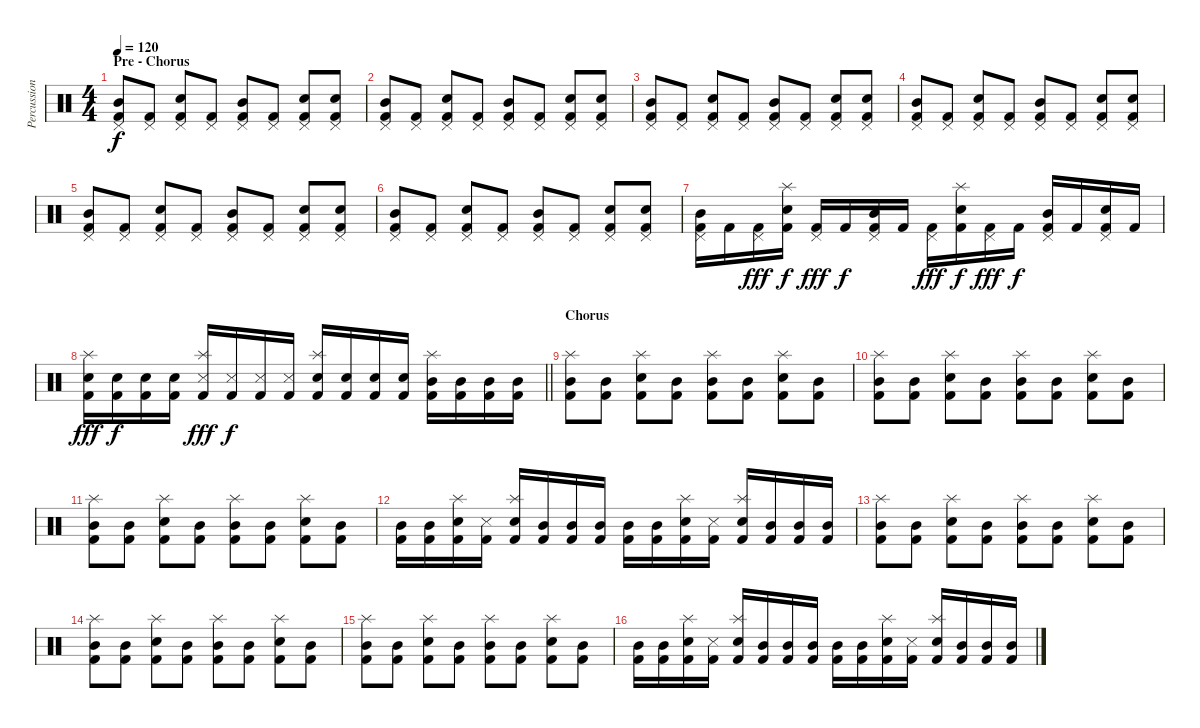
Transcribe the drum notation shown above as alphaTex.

\track ("Percussion" "Percussion") {instrument percussion}
\staff {score}
\articulation defaults
\ts (4 4)
\section ("" "Pre - Chorus")
\tempo 120
\clef neutral
\ks c
("Pedal Hi-Hat (hit)" "Mid Tom (hit)" "Kick (hit) 2").8{dy f} ("Pedal Hi-Hat (hit)" "Kick (hit) 2").8 ("Pedal Hi-Hat (hit)" "Electric Snare (hit)" "Kick (hit) 2").8 ("Pedal Hi-Hat (hit)" "Kick (hit) 2").8 ("Pedal Hi-Hat (hit)" "Mid Tom (hit)" "Kick (hit) 2").8 ("Pedal Hi-Hat (hit)" "Kick (hit) 2").8 ("Pedal Hi-Hat (hit)" "Electric Snare (hit)" "Kick (hit) 2").8 ("Pedal Hi-Hat (hit)" "Electric Snare (hit)" "Kick (hit) 2").8 |
("Pedal Hi-Hat (hit)" "Mid Tom (hit)" "Kick (hit) 2").8 ("Pedal Hi-Hat (hit)" "Kick (hit) 2").8 ("Pedal Hi-Hat (hit)" "Electric Snare (hit)" "Kick (hit) 2").8 ("Pedal Hi-Hat (hit)" "Kick (hit) 2").8 ("Pedal Hi-Hat (hit)" "Mid Tom (hit)" "Kick (hit) 2").8 ("Pedal Hi-Hat (hit)" "Kick (hit) 2").8 ("Pedal Hi-Hat (hit)" "Electric Snare (hit)" "Kick (hit) 2").8 ("Pedal Hi-Hat (hit)" "Electric Snare (hit)" "Kick (hit) 2").8 |
("Pedal Hi-Hat (hit)" "Mid Tom (hit)" "Kick (hit) 2").8 ("Pedal Hi-Hat (hit)" "Kick (hit) 2").8 ("Pedal Hi-Hat (hit)" "Electric Snare (hit)" "Kick (hit) 2").8 ("Pedal Hi-Hat (hit)" "Kick (hit) 2").8 ("Pedal Hi-Hat (hit)" "Mid Tom (hit)" "Kick (hit) 2").8 ("Pedal Hi-Hat (hit)" "Kick (hit) 2").8 ("Pedal Hi-Hat (hit)" "Electric Snare (hit)" "Kick (hit) 2").8 ("Pedal Hi-Hat (hit)" "Electric Snare (hit)" "Kick (hit) 2").8 |
("Pedal Hi-Hat (hit)" "Mid Tom (hit)" "Kick (hit) 2").8 ("Pedal Hi-Hat (hit)" "Kick (hit) 2").8 ("Pedal Hi-Hat (hit)" "Electric Snare (hit)" "Kick (hit) 2").8 ("Pedal Hi-Hat (hit)" "Kick (hit) 2").8 ("Pedal Hi-Hat (hit)" "Mid Tom (hit)" "Kick (hit) 2").8 ("Pedal Hi-Hat (hit)" "Kick (hit) 2").8 ("Pedal Hi-Hat (hit)" "Electric Snare (hit)" "Kick (hit) 2").8 ("Pedal Hi-Hat (hit)" "Electric Snare (hit)" "Kick (hit) 2").8 |
("Pedal Hi-Hat (hit)" "Mid Tom (hit)" "Kick (hit) 2").8 ("Pedal Hi-Hat (hit)" "Kick (hit) 2").8 ("Pedal Hi-Hat (hit)" "Electric Snare (hit)" "Kick (hit) 2").8 ("Pedal Hi-Hat (hit)" "Kick (hit) 2").8 ("Pedal Hi-Hat (hit)" "Mid Tom (hit)" "Kick (hit) 2").8 ("Pedal Hi-Hat (hit)" "Kick (hit) 2").8 ("Pedal Hi-Hat (hit)" "Electric Snare (hit)" "Kick (hit) 2").8 ("Pedal Hi-Hat (hit)" "Electric Snare (hit)" "Kick (hit) 2").8 |
("Pedal Hi-Hat (hit)" "Mid Tom (hit)" "Kick (hit) 2").8 ("Pedal Hi-Hat (hit)" "Kick (hit) 2").8 ("Pedal Hi-Hat (hit)" "Electric Snare (hit)" "Kick (hit) 2").8 ("Pedal Hi-Hat (hit)" "Kick (hit) 2").8 ("Pedal Hi-Hat (hit)" "Mid Tom (hit)" "Kick (hit) 2").8 ("Pedal Hi-Hat (hit)" "Kick (hit) 2").8 ("Pedal Hi-Hat (hit)" "Electric Snare (hit)" "Kick (hit) 2").8 ("Pedal Hi-Hat (hit)" "Electric Snare (hit)" "Kick (hit) 2").8 |
("Pedal Hi-Hat (hit)" "Mid Tom (hit)" "Kick (hit) 2").16 "Kick (hit) 2".16 ("Pedal Hi-Hat (hit)" "Kick (hit) 2").16{dy fff} ("Splash (hit)" "Electric Snare (hit)" "Kick (hit) 2").16{dy f} ("Pedal Hi-Hat (hit)" "Kick (hit) 2").16{dy fff} "Kick (hit) 2".16{dy f} ("Pedal Hi-Hat (hit)" "Mid Tom (hit)" "Kick (hit) 2").16 "Kick (hit) 2".16 ("Pedal Hi-Hat (hit)" "Kick (hit) 2").16{dy fff} ("Splash (hit)" "Electric Snare (hit)" "Kick (hit) 2").16{dy f} ("Pedal Hi-Hat (hit)" "Kick (hit) 2").16{dy fff} "Kick (hit) 2".16{dy f} ("Pedal Hi-Hat (hit)" "Mid Tom (hit)" "Kick (hit) 2").16 "Kick (hit) 2".16 ("Pedal Hi-Hat (hit)" "Electric Snare (hit)" "Kick (hit) 2").16 "Kick (hit) 2".16 |
\barLineRight lightlight
("Splash (hit)" "Electric Snare (hit)" "Kick (hit) 2").16{dy fff} ("Electric Snare (hit)" "Kick (hit) 2").16{dy f} ("Electric Snare (hit)" "Kick (hit) 2").16 ("Electric Snare (hit)" "Kick (hit) 2").16 ("Splash (hit)" "Metronome (hit)" "Kick (hit) 2").16{dy fff} ("Metronome (hit)" "Kick (hit) 2").16{dy f} ("Metronome (hit)" "Kick (hit) 2").16 ("Metronome (hit)" "Kick (hit) 2").16 ("Splash (hit)" "Snare (hit)" "Kick (hit) 2").16 ("Snare (hit)" "Kick (hit) 2").16 ("Snare (hit)" "Kick (hit) 2").16 ("Snare (hit)" "Kick (hit) 2").16 ("Splash (hit)" "Mid Tom (hit)" "Kick (hit) 2").16 ("Mid Tom (hit)" "Kick (hit) 2").16 ("Mid Tom (hit)" "Kick (hit) 2").16 ("Mid Tom (hit)" "Kick (hit) 2").16 |
\section ("" "Chorus")
("Splash (hit)" "Mid Tom (hit)" "Kick (hit) 2").8 ("Mid Tom (hit)" "Kick (hit) 2").8 ("Splash (hit)" "Electric Snare (hit)" "Kick (hit) 2").8 ("Mid Tom (hit)" "Kick (hit) 2").8 ("Splash (hit)" "Mid Tom (hit)" "Kick (hit) 2").8 ("Mid Tom (hit)" "Kick (hit) 2").8 ("Splash (hit)" "Electric Snare (hit)" "Kick (hit) 2").8 ("Mid Tom (hit)" "Kick (hit) 2").8 |
("Splash (hit)" "Mid Tom (hit)" "Kick (hit) 2").8 ("Mid Tom (hit)" "Kick (hit) 2").8 ("Splash (hit)" "Electric Snare (hit)" "Kick (hit) 2").8 ("Mid Tom (hit)" "Kick (hit) 2").8 ("Splash (hit)" "Mid Tom (hit)" "Kick (hit) 2").8 ("Mid Tom (hit)" "Kick (hit) 2").8 ("Splash (hit)" "Electric Snare (hit)" "Kick (hit) 2").8 ("Mid Tom (hit)" "Kick (hit) 2").8 |
("Splash (hit)" "Mid Tom (hit)" "Kick (hit) 2").8 ("Mid Tom (hit)" "Kick (hit) 2").8 ("Splash (hit)" "Electric Snare (hit)" "Kick (hit) 2").8 ("Mid Tom (hit)" "Kick (hit) 2").8 ("Splash (hit)" "Mid Tom (hit)" "Kick (hit) 2").8 ("Mid Tom (hit)" "Kick (hit) 2").8 ("Splash (hit)" "Electric Snare (hit)" "Kick (hit) 2").8 ("Mid Tom (hit)" "Kick (hit) 2").8 |
("Mid Tom (hit)" "Kick (hit) 2").16 ("Mid Tom (hit)" "Kick (hit) 2").16 ("Splash (hit)" "Electric Snare (hit)" "Kick (hit) 2").16 ("Metronome (hit)" "Kick (hit) 2").16 ("Splash (hit)" "Snare (hit)" "Kick (hit) 2").16 ("Mid Tom (hit)" "Kick (hit) 2").16 ("Mid Tom (hit)" "Kick (hit) 2").16 ("Mid Tom (hit)" "Kick (hit) 2").16 ("Mid Tom (hit)" "Kick (hit) 2").16 ("Mid Tom (hit)" "Kick (hit) 2").16 ("Splash (hit)" "Electric Snare (hit)" "Kick (hit) 2").16 ("Metronome (hit)" "Kick (hit) 2").16 ("Splash (hit)" "Snare (hit)" "Kick (hit) 2").16 ("Mid Tom (hit)" "Kick (hit) 2").16 ("Mid Tom (hit)" "Kick (hit) 2").16 ("Mid Tom (hit)" "Kick (hit) 2").16 |
("Splash (hit)" "Mid Tom (hit)" "Kick (hit) 2").8 ("Mid Tom (hit)" "Kick (hit) 2").8 ("Splash (hit)" "Electric Snare (hit)" "Kick (hit) 2").8 ("Mid Tom (hit)" "Kick (hit) 2").8 ("Splash (hit)" "Mid Tom (hit)" "Kick (hit) 2").8 ("Mid Tom (hit)" "Kick (hit) 2").8 ("Splash (hit)" "Electric Snare (hit)" "Kick (hit) 2").8 ("Mid Tom (hit)" "Kick (hit) 2").8 |
("Splash (hit)" "Mid Tom (hit)" "Kick (hit) 2").8 ("Mid Tom (hit)" "Kick (hit) 2").8 ("Splash (hit)" "Electric Snare (hit)" "Kick (hit) 2").8 ("Mid Tom (hit)" "Kick (hit) 2").8 ("Splash (hit)" "Mid Tom (hit)" "Kick (hit) 2").8 ("Mid Tom (hit)" "Kick (hit) 2").8 ("Splash (hit)" "Electric Snare (hit)" "Kick (hit) 2").8 ("Mid Tom (hit)" "Kick (hit) 2").8 |
("Splash (hit)" "Mid Tom (hit)" "Kick (hit) 2").8 ("Mid Tom (hit)" "Kick (hit) 2").8 ("Splash (hit)" "Electric Snare (hit)" "Kick (hit) 2").8 ("Mid Tom (hit)" "Kick (hit) 2").8 ("Splash (hit)" "Mid Tom (hit)" "Kick (hit) 2").8 ("Mid Tom (hit)" "Kick (hit) 2").8 ("Splash (hit)" "Electric Snare (hit)" "Kick (hit) 2").8 ("Mid Tom (hit)" "Kick (hit) 2").8 |
("Mid Tom (hit)" "Kick (hit) 2").16 ("Mid Tom (hit)" "Kick (hit) 2").16 ("Splash (hit)" "Electric Snare (hit)" "Kick (hit) 2").16 ("Metronome (hit)" "Kick (hit) 2").16 ("Splash (hit)" "Snare (hit)" "Kick (hit) 2").16 ("Mid Tom (hit)" "Kick (hit) 2").16 ("Mid Tom (hit)" "Kick (hit) 2").16 ("Mid Tom (hit)" "Kick (hit) 2").16 ("Mid Tom (hit)" "Kick (hit) 2").16 ("Mid Tom (hit)" "Kick (hit) 2").16 ("Splash (hit)" "Electric Snare (hit)" "Kick (hit) 2").16 ("Metronome (hit)" "Kick (hit) 2").16 ("Splash (hit)" "Snare (hit)" "Kick (hit) 2").16 ("Mid Tom (hit)" "Kick (hit) 2").16 ("Mid Tom (hit)" "Kick (hit) 2").16 ("Mid Tom (hit)" "Kick (hit) 2").16
